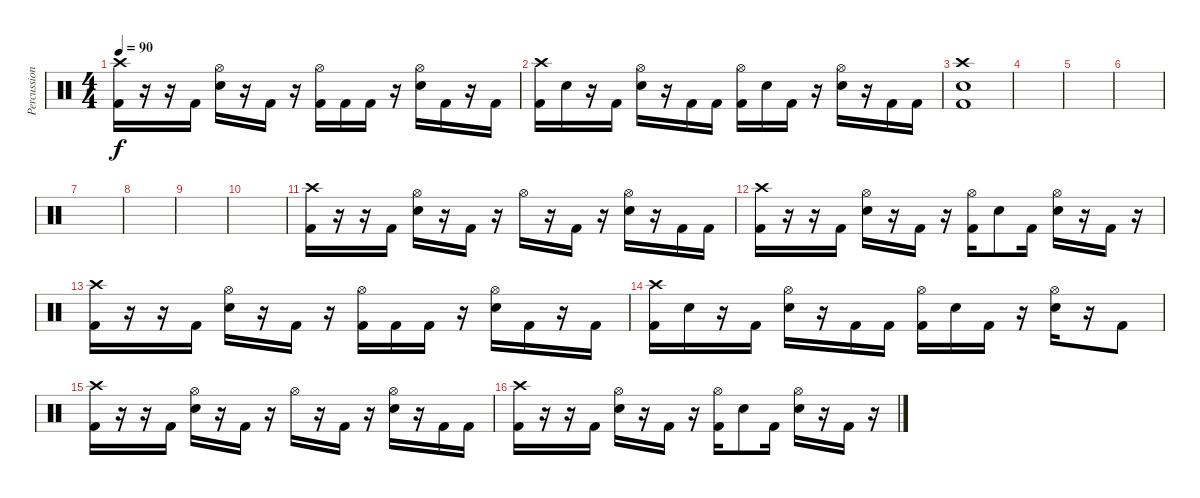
\track ("Percussion" "Percussion") {instrument percussion}
\staff {score}
\articulation defaults
\ts (4 4)
\tempo 90
\clef neutral
\ks c
("Crash high (hit)" "Kick (hit) 2").16{dy f} r.16 r.16 "Kick (hit) 2".16 ("Hi-Hat (open)" "Snare (hit) 2").16 r.16 "Kick (hit) 2".16 r.16 ("Hi-Hat (open)" "Kick (hit) 2").16 "Kick (hit) 2".16 "Kick (hit) 2".16 r.16 ("Hi-Hat (open)" "Snare (hit) 2").16 "Kick (hit) 2".16 r.16 "Kick (hit) 2".16 |
("Crash high (hit)" "Kick (hit) 2").16 "Snare (hit) 2".16 r.16 "Kick (hit) 2".16 ("Hi-Hat (open)" "Snare (hit) 2").16 r.16 "Kick (hit) 2".16 "Kick (hit) 2".16 ("Hi-Hat (open)" "Kick (hit) 2").16 "Snare (hit) 2".16 "Kick (hit) 2".16 r.16 ("Hi-Hat (open)" "Snare (hit) 2").16 r.16 "Kick (hit) 2".16 "Kick (hit) 2".16 |
("Crash high (hit)" "Snare (hit) 2" "Kick (hit) 2").1 |
|
|
|
|
|
|
|
("Crash high (hit)" "Kick (hit) 2").16 r.16 r.16 "Kick (hit) 2".16 ("Hi-Hat (open)" "Snare (hit) 2").16 r.16 "Kick (hit) 2".16 r.16 "Hi-Hat (open)".16 r.16 "Kick (hit) 2".16 r.16 ("Hi-Hat (open)" "Snare (hit) 2").16 r.16 "Kick (hit) 2".16 "Kick (hit) 2".16 |
("Crash high (hit)" "Kick (hit) 2").16 r.16 r.16 "Kick (hit) 2".16 ("Hi-Hat (open)" "Snare (hit) 2").16 r.16 "Kick (hit) 2".16 r.16 ("Hi-Hat (open)" "Kick (hit) 2").16 "Snare (hit) 2".8 "Kick (hit) 2".16 ("Hi-Hat (open)" "Snare (hit) 2").16 r.16 "Kick (hit) 2".16 r.16 |
("Crash high (hit)" "Kick (hit) 2").16 r.16 r.16 "Kick (hit) 2".16 ("Hi-Hat (open)" "Snare (hit) 2").16 r.16 "Kick (hit) 2".16 r.16 ("Hi-Hat (open)" "Kick (hit) 2").16 "Kick (hit) 2".16 "Kick (hit) 2".16 r.16 ("Hi-Hat (open)" "Snare (hit) 2").16 "Kick (hit) 2".16 r.16 "Kick (hit) 2".16 |
("Crash high (hit)" "Kick (hit) 2").16 "Snare (hit) 2".16 r.16 "Kick (hit) 2".16 ("Hi-Hat (open)" "Snare (hit) 2").16 r.16 "Kick (hit) 2".16 "Kick (hit) 2".16 ("Hi-Hat (open)" "Kick (hit) 2").16 "Snare (hit) 2".16 "Kick (hit) 2".16 r.16 ("Hi-Hat (open)" "Snare (hit) 2").16 r.16 "Kick (hit) 2".8 |
("Crash high (hit)" "Kick (hit) 2").16 r.16 r.16 "Kick (hit) 2".16 ("Hi-Hat (open)" "Snare (hit) 2").16 r.16 "Kick (hit) 2".16 r.16 "Hi-Hat (open)".16 r.16 "Kick (hit) 2".16 r.16 ("Hi-Hat (open)" "Snare (hit) 2").16 r.16 "Kick (hit) 2".16 "Kick (hit) 2".16 |
("Crash high (hit)" "Kick (hit) 2").16 r.16 r.16 "Kick (hit) 2".16 ("Hi-Hat (open)" "Snare (hit) 2").16 r.16 "Kick (hit) 2".16 r.16 ("Hi-Hat (open)" "Kick (hit) 2").16 "Snare (hit) 2".8 "Kick (hit) 2".16 ("Hi-Hat (open)" "Snare (hit) 2").16 r.16 "Kick (hit) 2".16 r.16
